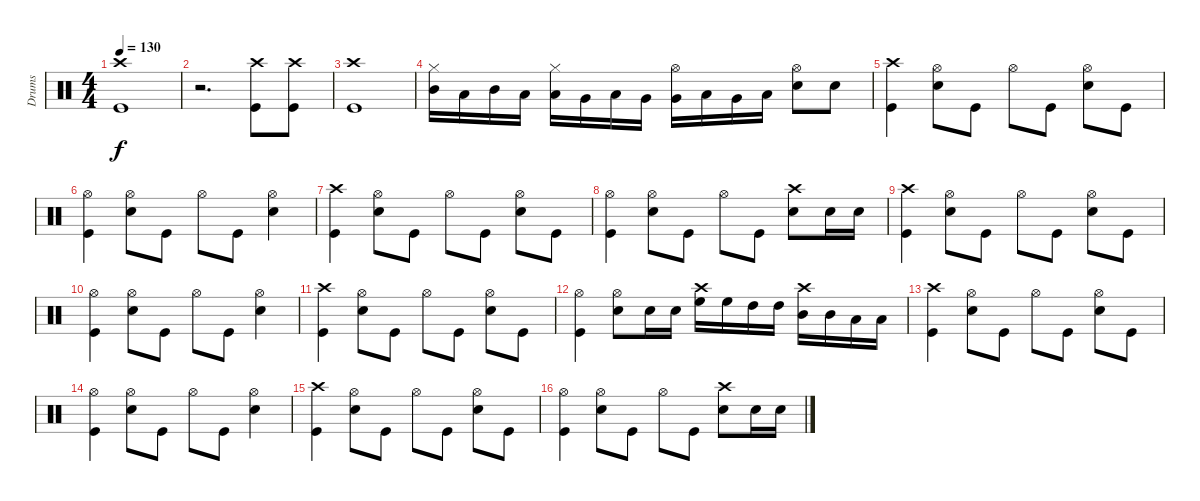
\track ("Drums" "Drums") {instrument percussion}
\staff {score}
\articulation defaults
\ts (4 4)
\tempo 130
\clef neutral
\ks c
("Crash high (hit)" "Kick (hit)").1{dy f} |
r.2{d} ("Crash high (hit)" "Kick (hit)").8 ("Crash high (hit)" "Kick (hit)").8 |
("Crash high (hit)" "Kick (hit)").1 |
("Hi-Hat (closed)" "Mid Tom (hit)").16 "Low Tom (hit)".16 "Mid Tom (hit)".16 "Low Tom (hit)".16 ("Hi-Hat (closed)" "Low Tom (hit)").16 "Very Low Tom (hit)".16 "Low Tom (hit)".16 "Very Low Tom (hit)".16 ("Hi-Hat (open)" "Very Low Tom (hit)").16 "Low Floor Tom (hit)".16 "Very Low Tom (hit)".16 "Low Floor Tom (hit)".16 ("Hi-Hat (open)" "Snare (hit) 2").8 "Snare (hit) 2".8 |
("Crash high (hit)" "Kick (hit)").4 ("Hi-Hat (open)" "Snare (hit) 2").8 "Kick (hit)".8 "Hi-Hat (open)".8 "Kick (hit)".8 ("Hi-Hat (open)" "Snare (hit) 2").8 "Kick (hit)".8 |
("Hi-Hat (open)" "Kick (hit)").4 ("Hi-Hat (open)" "Snare (hit) 2").8 "Kick (hit)".8 "Hi-Hat (open)".8 "Kick (hit)".8 ("Hi-Hat (open)" "Snare (hit) 2").4 |
("Crash high (hit)" "Kick (hit)").4 ("Hi-Hat (open)" "Snare (hit) 2").8 "Kick (hit)".8 "Hi-Hat (open)".8 "Kick (hit)".8 ("Hi-Hat (open)" "Snare (hit) 2").8 "Kick (hit)".8 |
("Hi-Hat (open)" "Kick (hit)").4 ("Hi-Hat (open)" "Snare (hit) 2").8 "Kick (hit)".8 "Hi-Hat (open)".8 "Kick (hit)".8 ("Crash high (hit)" "Snare (hit) 2").8 "Snare (hit) 2".16 "Snare (hit) 2".16 |
("Crash high (hit)" "Kick (hit)").4 ("Hi-Hat (open)" "Snare (hit) 2").8 "Kick (hit)".8 "Hi-Hat (open)".8 "Kick (hit)".8 ("Hi-Hat (open)" "Snare (hit) 2").8 "Kick (hit)".8 |
("Hi-Hat (open)" "Kick (hit)").4 ("Hi-Hat (open)" "Snare (hit) 2").8 "Kick (hit)".8 "Hi-Hat (open)".8 "Kick (hit)".8 ("Hi-Hat (open)" "Snare (hit) 2").4 |
("Crash high (hit)" "Kick (hit)").4 ("Hi-Hat (open)" "Snare (hit) 2").8 "Kick (hit)".8 "Hi-Hat (open)".8 "Kick (hit)".8 ("Hi-Hat (open)" "Snare (hit) 2").8 "Kick (hit)".8 |
("Hi-Hat (open)" "Kick (hit)").4 ("Hi-Hat (open)" "Snare (hit) 2").8 "Snare (hit) 2".16 "Snare (hit) 2".16 ("Crash high (hit)" "High Floor Tom (hit)").16 "High Floor Tom (hit)".16 "High Tom (hit)".16 "High Tom (hit)".16 ("Crash high (hit)" "Mid Tom (hit)").16 "Mid Tom (hit)".16 "Low Tom (hit)".16 "Low Tom (hit)".16 |
("Crash high (hit)" "Kick (hit)").4 ("Hi-Hat (open)" "Snare (hit) 2").8 "Kick (hit)".8 "Hi-Hat (open)".8 "Kick (hit)".8 ("Hi-Hat (open)" "Snare (hit) 2").8 "Kick (hit)".8 |
("Hi-Hat (open)" "Kick (hit)").4 ("Hi-Hat (open)" "Snare (hit) 2").8 "Kick (hit)".8 "Hi-Hat (open)".8 "Kick (hit)".8 ("Hi-Hat (open)" "Snare (hit) 2").4 |
("Crash high (hit)" "Kick (hit)").4 ("Hi-Hat (open)" "Snare (hit) 2").8 "Kick (hit)".8 "Hi-Hat (open)".8 "Kick (hit)".8 ("Hi-Hat (open)" "Snare (hit) 2").8 "Kick (hit)".8 |
("Hi-Hat (open)" "Kick (hit)").4 ("Hi-Hat (open)" "Snare (hit) 2").8 "Kick (hit)".8 "Hi-Hat (open)".8 "Kick (hit)".8 ("Crash high (hit)" "Snare (hit) 2").8 "Snare (hit) 2".16 "Snare (hit) 2".16
